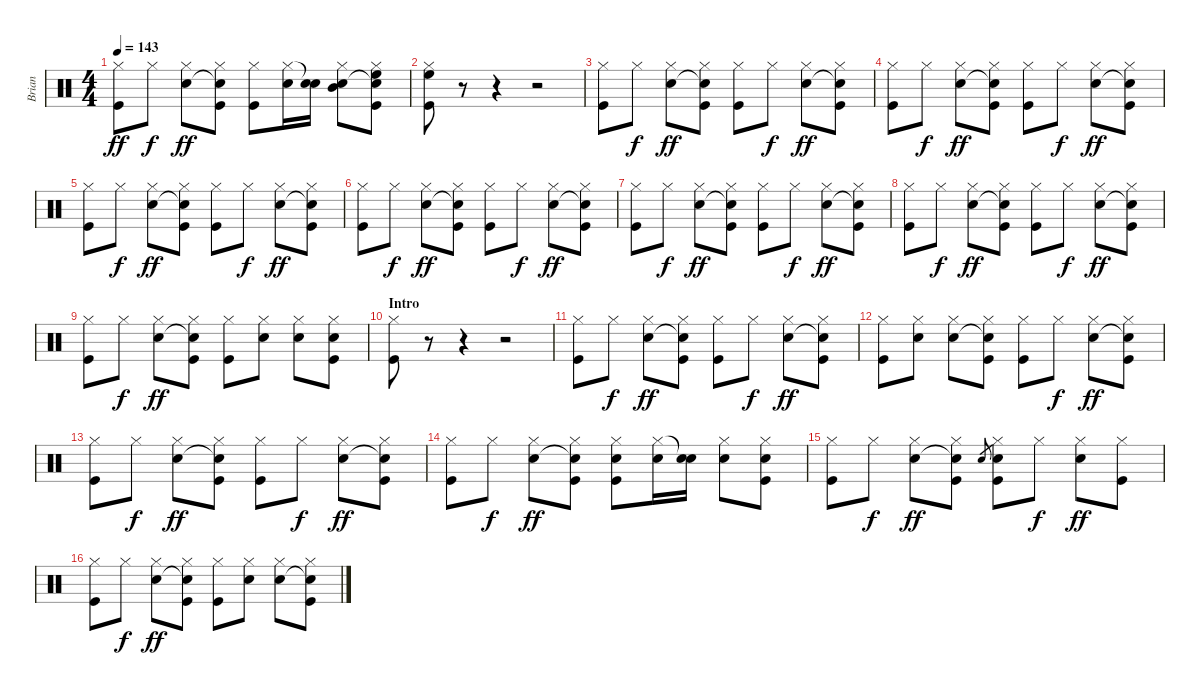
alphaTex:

\track ("Brian" "Brian") {instrument percussion}
\staff {score}
\articulation defaults
\ts (4 4)
\tempo 143
\clef neutral
\ks c
("Hi-Hat (closed)" "Kick (hit)").8{dy ff} "Hi-Hat (closed)".8{dy f} ("Hi-Hat (closed)" "Electric Snare (hit)").8{dy ff} ("Hi-Hat (closed)" "Snare (hit)"{t} "Kick (hit)").8 ("Hi-Hat (closed)" "Kick (hit)").8 ("Hi-Hat (closed)" "Electric Snare (hit)").16 ("Snare (hit)"{t} "Electric Snare (hit)").16 ("Mid Tom (hit)" "Hi-Hat (closed)" "Electric Snare (hit)").8 ("High Floor Tom (hit)" "Hi-Hat (closed)" "Snare (hit)"{t} "Kick (hit)").8 |
("High Floor Tom (hit)" "Hi-Hat (closed)" "Kick (hit)").8 r.8 r.4 r.2 |
("Hi-Hat (closed)" "Kick (hit)").8 "Hi-Hat (closed)".8{dy f} ("Hi-Hat (closed)" "Electric Snare (hit)").8{dy ff} ("Hi-Hat (closed)" "Snare (hit)"{t} "Kick (hit)").8 ("Hi-Hat (closed)" "Kick (hit)").8 "Hi-Hat (closed)".8{dy f} ("Hi-Hat (closed)" "Electric Snare (hit)").8{dy ff} ("Hi-Hat (closed)" "Snare (hit)"{t} "Kick (hit)").8 |
("Hi-Hat (closed)" "Kick (hit)").8 "Hi-Hat (closed)".8{dy f} ("Hi-Hat (closed)" "Electric Snare (hit)").8{dy ff} ("Hi-Hat (closed)" "Snare (hit)"{t} "Kick (hit)").8 ("Hi-Hat (closed)" "Kick (hit)").8 "Hi-Hat (closed)".8{dy f} ("Hi-Hat (closed)" "Electric Snare (hit)").8{dy ff} ("Hi-Hat (closed)" "Snare (hit)"{t} "Kick (hit)").8 |
("Hi-Hat (closed)" "Kick (hit)").8 "Hi-Hat (closed)".8{dy f} ("Hi-Hat (closed)" "Electric Snare (hit)").8{dy ff} ("Hi-Hat (closed)" "Snare (hit)"{t} "Kick (hit)").8 ("Hi-Hat (closed)" "Kick (hit)").8 "Hi-Hat (closed)".8{dy f} ("Hi-Hat (closed)" "Electric Snare (hit)").8{dy ff} ("Hi-Hat (closed)" "Snare (hit)"{t} "Kick (hit)").8 |
("Hi-Hat (closed)" "Kick (hit)").8 "Hi-Hat (closed)".8{dy f} ("Hi-Hat (closed)" "Electric Snare (hit)").8{dy ff} ("Hi-Hat (closed)" "Snare (hit)"{t} "Kick (hit)").8 ("Hi-Hat (closed)" "Kick (hit)").8 "Hi-Hat (closed)".8{dy f} ("Hi-Hat (closed)" "Electric Snare (hit)").8{dy ff} ("Hi-Hat (closed)" "Snare (hit)"{t} "Kick (hit)").8 |
("Hi-Hat (closed)" "Kick (hit)").8 "Hi-Hat (closed)".8{dy f} ("Hi-Hat (closed)" "Electric Snare (hit)").8{dy ff} ("Hi-Hat (closed)" "Snare (hit)"{t} "Kick (hit)").8 ("Hi-Hat (closed)" "Kick (hit)").8 "Hi-Hat (closed)".8{dy f} ("Hi-Hat (closed)" "Electric Snare (hit)").8{dy ff} ("Hi-Hat (closed)" "Snare (hit)"{t} "Kick (hit)").8 |
("Hi-Hat (closed)" "Kick (hit)").8 "Hi-Hat (closed)".8{dy f} ("Hi-Hat (closed)" "Electric Snare (hit)").8{dy ff} ("Hi-Hat (closed)" "Snare (hit)"{t} "Kick (hit)").8 ("Hi-Hat (closed)" "Kick (hit)").8 "Hi-Hat (closed)".8{dy f} ("Hi-Hat (closed)" "Electric Snare (hit)").8{dy ff} ("Hi-Hat (closed)" "Snare (hit)"{t} "Kick (hit)").8 |
("Hi-Hat (closed)" "Kick (hit)").8 "Hi-Hat (closed)".8{dy f} ("Hi-Hat (closed)" "Electric Snare (hit)").8{dy ff} ("Hi-Hat (closed)" "Snare (hit)"{t} "Kick (hit)").8 ("Hi-Hat (closed)" "Kick (hit)").8 ("Hi-Hat (closed)" "Electric Snare (hit)").8 ("Hi-Hat (closed)" "Electric Snare (hit)").8 ("Hi-Hat (closed)" "Electric Snare (hit)" "Kick (hit)").8 |
\section ("" "Intro")
("Hi-Hat (closed)" "Kick (hit)").8 r.8 r.4 r.2 |
("Hi-Hat (closed)" "Kick (hit)").8 "Hi-Hat (closed)".8{dy f} ("Hi-Hat (closed)" "Electric Snare (hit)").8{dy ff} ("Hi-Hat (closed)" "Snare (hit)"{t} "Kick (hit)").8 ("Hi-Hat (closed)" "Kick (hit)").8 "Hi-Hat (closed)".8{dy f} ("Hi-Hat (closed)" "Electric Snare (hit)").8{dy ff} ("Hi-Hat (closed)" "Snare (hit)"{t} "Kick (hit)").8 |
("Hi-Hat (closed)" "Kick (hit)").8 ("Hi-Hat (closed)" "Electric Snare (hit)").8 ("Hi-Hat (closed)" "Electric Snare (hit)").8 ("Hi-Hat (closed)" "Snare (hit)"{t} "Kick (hit)").8 ("Hi-Hat (closed)" "Kick (hit)").8 "Hi-Hat (closed)".8{dy f} ("Hi-Hat (closed)" "Electric Snare (hit)").8{dy ff} ("Hi-Hat (closed)" "Snare (hit)"{t} "Kick (hit)").8 |
("Hi-Hat (closed)" "Kick (hit)").8 "Hi-Hat (closed)".8{dy f} ("Hi-Hat (closed)" "Electric Snare (hit)").8{dy ff} ("Hi-Hat (closed)" "Snare (hit)"{t} "Kick (hit)").8 ("Hi-Hat (closed)" "Kick (hit)").8 "Hi-Hat (closed)".8{dy f} ("Hi-Hat (closed)" "Electric Snare (hit)").8{dy ff} ("Hi-Hat (closed)" "Snare (hit)"{t} "Kick (hit)").8 |
("Hi-Hat (closed)" "Kick (hit)").8 "Hi-Hat (closed)".8{dy f} ("Hi-Hat (closed)" "Electric Snare (hit)").8{dy ff} ("Hi-Hat (closed)" "Snare (hit)"{t} "Kick (hit)").8 ("Hi-Hat (closed)" "Electric Snare (hit)" "Kick (hit)").8 ("Hi-Hat (closed)" "Electric Snare (hit)").16 ("Snare (hit)"{t} "Electric Snare (hit)").16 ("Hi-Hat (closed)" "Electric Snare (hit)").8 ("Hi-Hat (closed)" "Electric Snare (hit)" "Kick (hit)").8 |
("Hi-Hat (closed)" "Kick (hit)").8 "Hi-Hat (closed)".8{dy f} ("Hi-Hat (closed)" "Electric Snare (hit)").8{dy ff} ("Hi-Hat (closed)" "Snare (hit)"{t} "Kick (hit)").8 "Electric Snare (hit)".8{gr} ("Hi-Hat (closed)" "Electric Snare (hit)" "Kick (hit)").8 "Hi-Hat (closed)".8{dy f} ("Hi-Hat (closed)" "Electric Snare (hit)").8{dy ff} ("Hi-Hat (closed)" "Kick (hit)").8 |
("Hi-Hat (closed)" "Kick (hit)").8 "Hi-Hat (closed)".8{dy f} ("Hi-Hat (closed)" "Electric Snare (hit)").8{dy ff} ("Hi-Hat (closed)" "Snare (hit)"{t} "Kick (hit)").8 ("Hi-Hat (closed)" "Kick (hit)").8 ("Hi-Hat (closed)" "Electric Snare (hit)").8 ("Hi-Hat (closed)" "Electric Snare (hit)").8 ("Hi-Hat (closed)" "Snare (hit)"{t} "Kick (hit)").8
